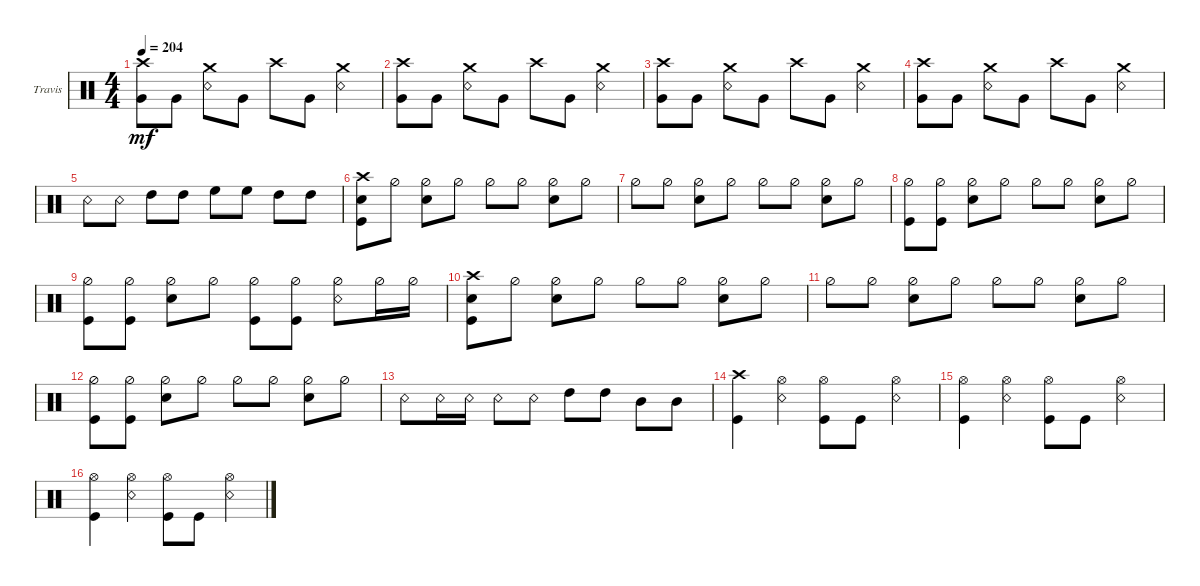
\defaultSystemsLayout 4
\bracketExtendMode groupsimilarinstruments
\firstSystemTrackNameOrientation horizontal
\otherSystemsTrackNameOrientation horizontal
\track ("Travis Barker" "Travis") {instrument percussion}
\staff {score}
\articulation defaults
\ts (4 4)
\tempo 204
\clef neutral
\ks c
("Very Low Tom (hit)" "Crash high (hit)").8{dy mf} "Very Low Tom (hit)".8 ("Snare (rim shot)" "Crash medium (hit)").8 "Very Low Tom (hit)".8 "Crash high (hit)".8 "Very Low Tom (hit)".8 ("Snare (rim shot)" "Crash medium (hit)").4 |
("Very Low Tom (hit)" "Crash high (hit)").8 "Very Low Tom (hit)".8 ("Snare (rim shot)" "Crash medium (hit)").8 "Very Low Tom (hit)".8 "Crash high (hit)".8 "Very Low Tom (hit)".8 ("Snare (rim shot)" "Crash medium (hit)").4 |
("Very Low Tom (hit)" "Crash high (hit)").8 "Very Low Tom (hit)".8 ("Snare (rim shot)" "Crash medium (hit)").8 "Very Low Tom (hit)".8 "Crash high (hit)".8 "Very Low Tom (hit)".8 ("Snare (rim shot)" "Crash medium (hit)").4 |
("Very Low Tom (hit)" "Crash high (hit)").8 "Very Low Tom (hit)".8 ("Snare (rim shot)" "Crash medium (hit)").8 "Very Low Tom (hit)".8 "Crash high (hit)".8 "Very Low Tom (hit)".8 ("Snare (rim shot)" "Crash medium (hit)").4 |
"Snare (rim shot)".8 "Snare (rim shot)".8 "High Tom (hit)".8 "High Tom (hit)".8 "High Floor Tom (hit)".8 "High Floor Tom (hit)".8 "High Tom (hit)".8 "High Tom (hit)".8 |
("Crash high (hit)" "Kick (hit)" "Snare (hit) 2").8 "Hi-Hat (half)".8 ("Hi-Hat (half)" "Snare (hit) 2").8 "Hi-Hat (half)".8 "Hi-Hat (half)".8 "Hi-Hat (half)".8 ("Hi-Hat (half)" "Snare (hit) 2").8 "Hi-Hat (half)".8 |
"Hi-Hat (half)".8 "Hi-Hat (half)".8 ("Hi-Hat (half)" "Snare (hit) 2").8 "Hi-Hat (half)".8 "Hi-Hat (half)".8 "Hi-Hat (half)".8 ("Hi-Hat (half)" "Snare (hit) 2").8 "Hi-Hat (half)".8 |
("Hi-Hat (half)" "Kick (hit)").8 ("Kick (hit)" "Hi-Hat (half)").8 ("Hi-Hat (half)" "Snare (hit) 2").8 "Hi-Hat (half)".8 "Hi-Hat (half)".8 "Hi-Hat (half)".8 ("Hi-Hat (half)" "Snare (hit) 2").8 "Hi-Hat (half)".8 |
("Hi-Hat (half)" "Kick (hit)").8 ("Hi-Hat (half)" "Kick (hit)").8 ("Hi-Hat (half)" "Snare (hit) 2").8 "Hi-Hat (half)".8 ("Hi-Hat (half)" "Kick (hit)").8 ("Hi-Hat (half)" "Kick (hit)").8 ("Hi-Hat (half)" "Snare (rim shot)").8 "Hi-Hat (half)".16 "Hi-Hat (half)".16 |
("Crash high (hit)" "Kick (hit)" "Snare (hit) 2").8 "Hi-Hat (half)".8 ("Hi-Hat (half)" "Snare (hit) 2").8 "Hi-Hat (half)".8 "Hi-Hat (half)".8 "Hi-Hat (half)".8 ("Hi-Hat (half)" "Snare (hit) 2").8 "Hi-Hat (half)".8 |
"Hi-Hat (half)".8 "Hi-Hat (half)".8 ("Hi-Hat (half)" "Snare (hit) 2").8 "Hi-Hat (half)".8 "Hi-Hat (half)".8 "Hi-Hat (half)".8 ("Hi-Hat (half)" "Snare (hit) 2").8 "Hi-Hat (half)".8 |
("Hi-Hat (half)" "Kick (hit)").8 ("Kick (hit)" "Hi-Hat (half)").8 ("Hi-Hat (half)" "Snare (hit) 2").8 "Hi-Hat (half)".8 "Hi-Hat (half)".8 "Hi-Hat (half)".8 ("Hi-Hat (half)" "Snare (hit) 2").8 "Hi-Hat (half)".8 |
"Snare (rim shot)".8 "Snare (rim shot)".16 "Snare (rim shot)".16 "Snare (rim shot)".8 "Snare (rim shot)".8 "High Tom (hit)".8 "High Tom (hit)".8 "Mid Tom (hit)".8 "Mid Tom (hit)".8 |
("Crash high (hit)" "Kick (hit)").4 ("Hi-Hat (open)" "Snare (rim shot)").4 ("Hi-Hat (open)" "Kick (hit)").8 "Kick (hit)".8 ("Snare (rim shot)" "Hi-Hat (open)").4 |
("Kick (hit)" "Hi-Hat (open)").4 ("Hi-Hat (open)" "Snare (rim shot)").4 ("Hi-Hat (open)" "Kick (hit)").8 "Kick (hit)".8 ("Snare (rim shot)" "Hi-Hat (open)").4 |
("Kick (hit)" "Hi-Hat (open)").4 ("Hi-Hat (open)" "Snare (rim shot)").4 ("Hi-Hat (open)" "Kick (hit)").8 "Kick (hit)".8 ("Snare (rim shot)" "Hi-Hat (open)").4
